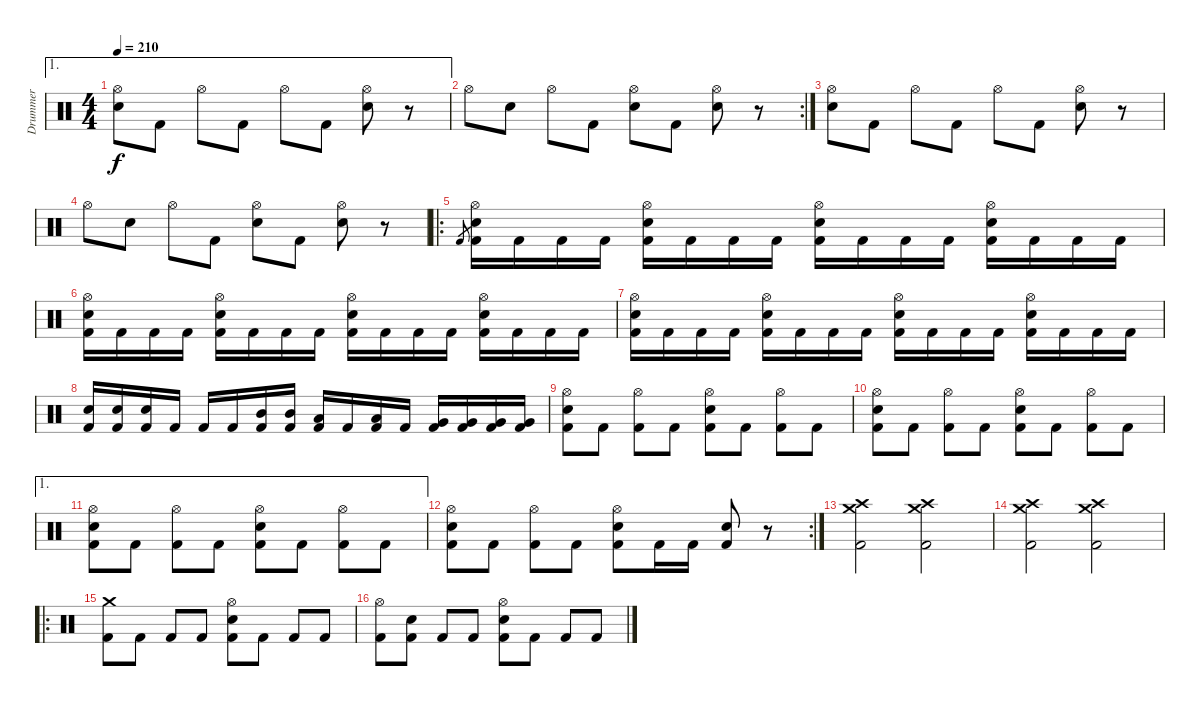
\track ("Drummer" "Drummer") {instrument percussion}
\staff {score}
\articulation defaults
\ae 1
\ts (4 4)
\tempo 210
\clef neutral
\ks c
("Hi-Hat (open)" "Electric Snare (hit)").8{dy f} "Kick (hit) 2".8 "Hi-Hat (open)".8 "Kick (hit) 2".8 "Hi-Hat (open)".8 "Kick (hit) 2".8 ("Hi-Hat (open)" "Electric Snare (hit)").8 r.8 |
\rc 2 "Hi-Hat (open)".8 "Electric Snare (hit)".8 "Hi-Hat (open)".8 "Kick (hit) 2".8
("Hi-Hat (open)" "Electric Snare (hit)").8 "Kick (hit) 2".8 ("Hi-Hat (open)" "Electric Snare (hit)").8 r.8 |
("Hi-Hat (open)" "Electric Snare (hit)").8 "Kick (hit) 2".8 "Hi-Hat (open)".8 "Kick (hit) 2".8 "Hi-Hat (open)".8 "Kick (hit) 2".8 ("Hi-Hat (open)" "Electric Snare (hit)").8 r.8 |
"Hi-Hat (open)".8 "Electric Snare (hit)".8 "Hi-Hat (open)".8 "Kick (hit) 2".8 ("Hi-Hat (open)" "Electric Snare (hit)").8 "Kick (hit) 2".8 ("Hi-Hat (open)" "Electric Snare (hit)").8 r.8 |
\ro "Kick (hit) 2".8{gr}
("Hi-Hat (open)" "Electric Snare (hit)" "Kick (hit) 2").16 "Kick (hit) 2".16 "Kick (hit) 2".16 "Kick (hit) 2".16 ("Hi-Hat (open)" "Electric Snare (hit)" "Kick (hit) 2").16 "Kick (hit) 2".16 "Kick (hit) 2".16 "Kick (hit) 2".16 ("Hi-Hat (open)" "Electric Snare (hit)" "Kick (hit) 2").16 "Kick (hit) 2".16 "Kick (hit) 2".16 "Kick (hit) 2".16 ("Hi-Hat (open)" "Electric Snare (hit)" "Kick (hit) 2").16 "Kick (hit) 2".16 "Kick (hit) 2".16 "Kick (hit) 2".16 |
("Hi-Hat (open)" "Electric Snare (hit)" "Kick (hit) 2").16 "Kick (hit) 2".16 "Kick (hit) 2".16 "Kick (hit) 2".16 ("Hi-Hat (open)" "Electric Snare (hit)" "Kick (hit) 2").16 "Kick (hit) 2".16 "Kick (hit) 2".16 "Kick (hit) 2".16 ("Hi-Hat (open)" "Electric Snare (hit)" "Kick (hit) 2").16 "Kick (hit) 2".16 "Kick (hit) 2".16 "Kick (hit) 2".16 ("Hi-Hat (open)" "Electric Snare (hit)" "Kick (hit) 2").16 "Kick (hit) 2".16 "Kick (hit) 2".16 "Kick (hit) 2".16 |
("Hi-Hat (open)" "Electric Snare (hit)" "Kick (hit) 2").16 "Kick (hit) 2".16 "Kick (hit) 2".16 "Kick (hit) 2".16 ("Hi-Hat (open)" "Electric Snare (hit)" "Kick (hit) 2").16 "Kick (hit) 2".16 "Kick (hit) 2".16 "Kick (hit) 2".16 ("Hi-Hat (open)" "Electric Snare (hit)" "Kick (hit) 2").16 "Kick (hit) 2".16 "Kick (hit) 2".16 "Kick (hit) 2".16 ("Hi-Hat (open)" "Electric Snare (hit)" "Kick (hit) 2").16 "Kick (hit) 2".16 "Kick (hit) 2".16 "Kick (hit) 2".16 |
("Electric Snare (hit)" "Kick (hit) 2").16 ("Electric Snare (hit)" "Kick (hit) 2").16 ("Electric Snare (hit)" "Kick (hit) 2").16 "Kick (hit) 2".16 "Kick (hit) 2".16 "Kick (hit) 2".16 ("Mid Tom (hit)" "Kick (hit) 2").16 ("Mid Tom (hit)" "Kick (hit) 2").16 ("Low Tom (hit)" "Kick (hit) 2").16 "Kick (hit) 2".16 ("Low Tom (hit)" "Kick (hit) 2").16 "Kick (hit) 2".16 ("Very Low Tom (hit)" "Kick (hit) 2").16 ("Very Low Tom (hit)" "Kick (hit) 2").16 ("Very Low Tom (hit)" "Kick (hit) 2").16 ("Very Low Tom (hit)" "Kick (hit) 2").16 |
("Hi-Hat (open)" "Electric Snare (hit)" "Kick (hit) 2").8 "Kick (hit) 2".8 ("Hi-Hat (open)" "Kick (hit) 2").8 "Kick (hit) 2".8 ("Hi-Hat (open)" "Electric Snare (hit)" "Kick (hit) 2").8 "Kick (hit) 2".8 ("Hi-Hat (open)" "Kick (hit) 2").8 "Kick (hit) 2".8 |
("Hi-Hat (open)" "Electric Snare (hit)" "Kick (hit) 2").8 "Kick (hit) 2".8 ("Hi-Hat (open)" "Kick (hit) 2").8 "Kick (hit) 2".8 ("Hi-Hat (open)" "Electric Snare (hit)" "Kick (hit) 2").8 "Kick (hit) 2".8 ("Hi-Hat (open)" "Kick (hit) 2").8 "Kick (hit) 2".8 |
\ae 1
("Hi-Hat (open)" "Electric Snare (hit)" "Kick (hit) 2").8 "Kick (hit) 2".8 ("Hi-Hat (open)" "Kick (hit) 2").8 "Kick (hit) 2".8 ("Hi-Hat (open)" "Electric Snare (hit)" "Kick (hit) 2").8 "Kick (hit) 2".8 ("Hi-Hat (open)" "Kick (hit) 2").8 "Kick (hit) 2".8 |
\rc 2
("Hi-Hat (open)" "Electric Snare (hit)" "Kick (hit) 2").8 "Kick (hit) 2".8 ("Hi-Hat (open)" "Kick (hit) 2").8 "Kick (hit) 2".8 ("Hi-Hat (open)" "Electric Snare (hit)" "Kick (hit) 2").8 "Kick (hit) 2".16 "Kick (hit) 2".16 ("Electric Snare (hit)" "Kick (hit) 2").8 r.8 |
("Crash high (hit)" "Crash medium (hit)" "Kick (hit) 2").2 ("Crash high (hit)" "Crash medium (hit)" "Kick (hit) 2").2 |
("Crash high (hit)" "Crash medium (hit)" "Kick (hit) 2").2 ("Crash high (hit)" "Crash medium (hit)" "Kick (hit) 2").2 |
\ro
("Crash medium (hit)" "Kick (hit) 2").8 "Kick (hit) 2".8 "Kick (hit) 2".8 "Kick (hit) 2".8 ("Hi-Hat (open)" "Electric Snare (hit)" "Kick (hit) 2").8 "Kick (hit) 2".8 "Kick (hit) 2".8 "Kick (hit) 2".8 |
("Hi-Hat (open)" "Kick (hit) 2").8 ("Electric Snare (hit)" "Kick (hit) 2").8 "Kick (hit) 2".8 "Kick (hit) 2".8 ("Hi-Hat (open)" "Electric Snare (hit)" "Kick (hit) 2").8 "Kick (hit) 2".8 "Kick (hit) 2".8 "Kick (hit) 2".8
